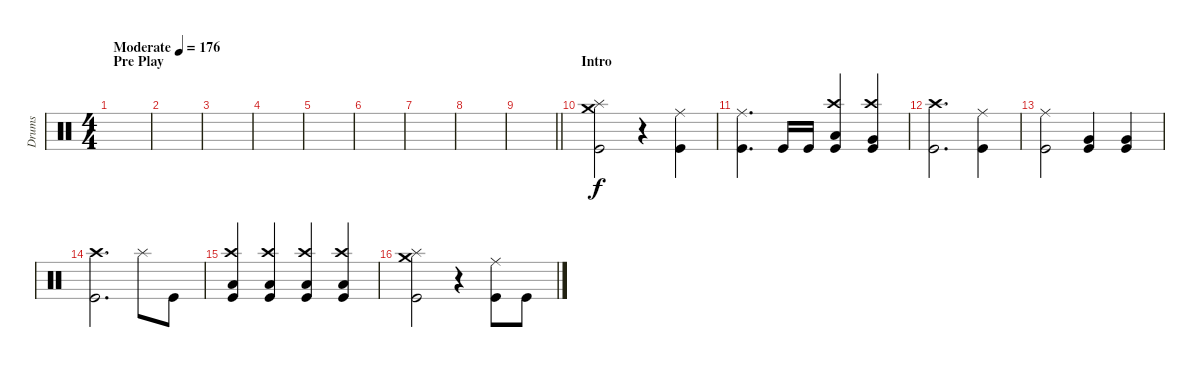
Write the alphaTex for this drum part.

\track ("Drums" "Drums") {instrument percussion}
\staff {score}
\articulation defaults
\ts (4 4)
\section ("" "Pre Play")
\tempo (176 "Moderate")
\clef neutral
\ks c
|
|
|
|
|
|
|
|
\barLineRight lightlight
|
\section ("" "Intro")
("Splash (hit)" "Kick (hit)" "Crash medium (hit)").2 r.4 ("Kick (hit)" "Ride (middle)").4 |
("Kick (hit)" "Ride (middle)").4{d} "Kick (hit)".16 "Kick (hit)".16 ("Kick (hit)" "Crash high (hit)" "Low Tom (hit)").4 ("Kick (hit)" "Crash high (hit)" "Very Low Tom (hit)").4 |
("Kick (hit)" "Crash high (hit)").2{d} ("Kick (hit)" "Ride (middle)").4 |
("Kick (hit)" "Ride (middle)").2 ("Kick (hit)" "Very Low Tom (hit)").4 ("Kick (hit)" "Very Low Tom (hit)").4 |
("Crash high (hit)" "Kick (hit)").2{d} "Splash (hit)".8 "Kick (hit)".8 |
("Kick (hit)" "Crash high (hit)" "Low Tom (hit)").4 ("Kick (hit)" "Crash high (hit)" "Low Tom (hit)").4 ("Kick (hit)" "Crash high (hit)" "Low Tom (hit)").4 ("Kick (hit)" "Crash high (hit)" "Low Tom (hit)").4 |
("Splash (hit)" "Kick (hit)" "Crash medium (hit)").2 r.4 ("Kick (hit)" "Ride (middle)").8 "Kick (hit)".8
